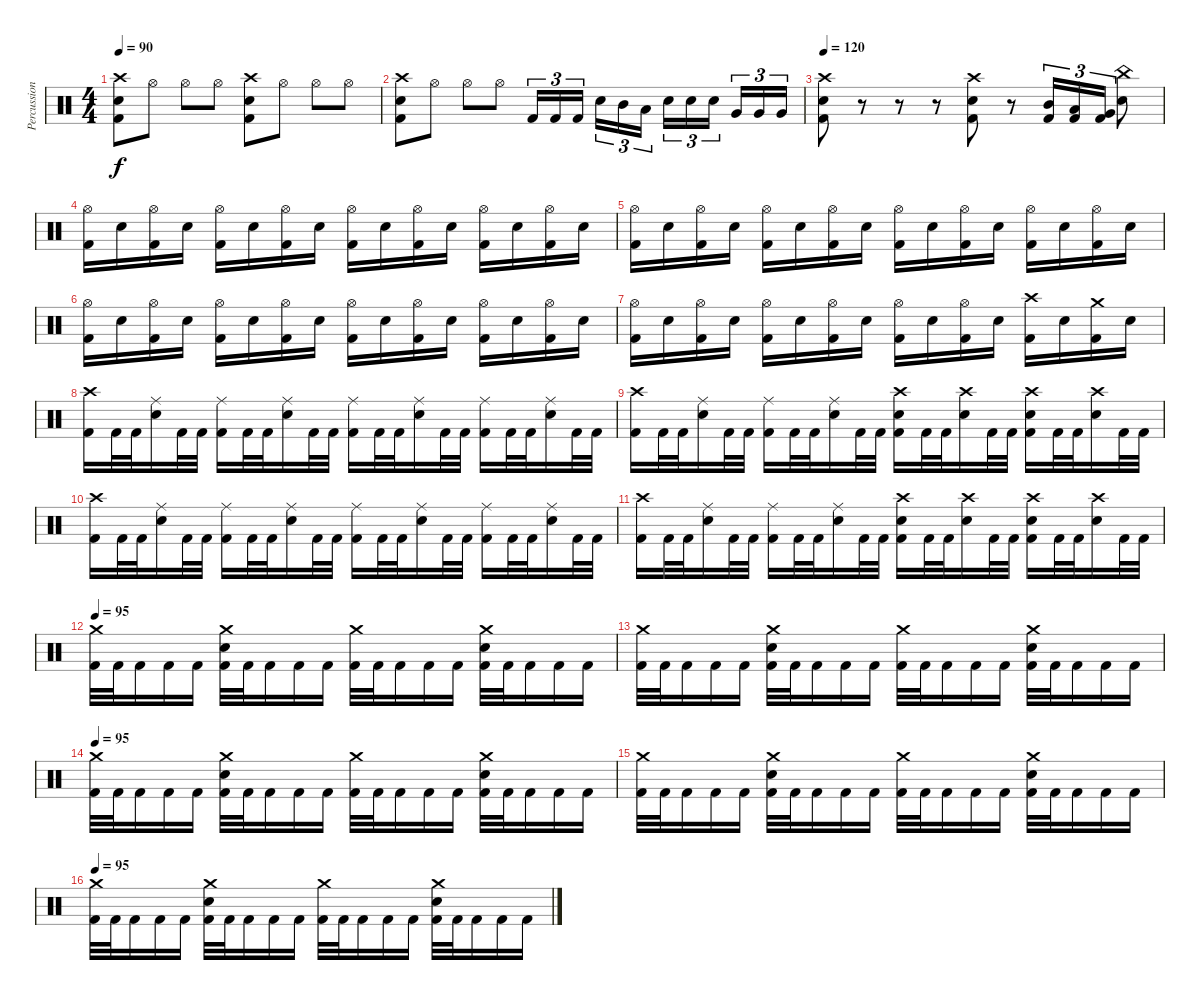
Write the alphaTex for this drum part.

\track ("Percussion" "Percussion") {instrument percussion}
\staff {score}
\articulation defaults
\ts (4 4)
\tempo 90
\clef neutral
\ks c
("Crash high (hit)" "Electric Snare (hit)" "Kick (hit) 2").8{dy f} "Hi-Hat (open)".8 "Hi-Hat (open)".8 "Hi-Hat (open)".8 ("Crash high (hit)" "Electric Snare (hit)" "Kick (hit) 2").8 "Hi-Hat (open)".8 "Hi-Hat (open)".8 "Hi-Hat (open)".8 |
("Crash high (hit)" "Electric Snare (hit)" "Kick (hit) 2").8 "Hi-Hat (open)".8 "Hi-Hat (open)".8 "Hi-Hat (open)".8 "Kick (hit) 2".16{tu (3 2)} "Kick (hit) 2".16{tu (3 2)} "Kick (hit) 2".16{tu (3 2)} "Electric Snare (hit)".16{tu (3 2)} "Mid Tom (hit)".16{tu (3 2)} "Low Tom (hit)".16{tu (3 2)} "Electric Snare (hit)".16{tu (3 2)} "Electric Snare (hit)".16{tu (3 2)} "Electric Snare (hit)".16{tu (3 2)} "Very Low Tom (hit)".16{tu (3 2)} "Very Low Tom (hit)".16{tu (3 2)} "Very Low Tom (hit)".16{tu (3 2)} |
\tempo 120
("Crash high (hit)" "Electric Snare (hit)" "Kick (hit) 2").8 r.8 r.8 r.8 ("Crash high (hit)" "Electric Snare (hit)" "Kick (hit) 2").8 r.8 ("Mid Tom (hit)" "Kick (hit) 2").16{tu (3 2)} ("Low Tom (hit)" "Kick (hit) 2").16{tu (3 2)} ("Very Low Tom (hit)" "Kick (hit) 2").16{tu (3 2)} ("China (hit)" "Electric Snare (hit)").8 |
("Hi-Hat (open)" "Kick (hit) 2").16 "Electric Snare (hit)".16 ("Hi-Hat (open)" "Kick (hit) 2").16 "Electric Snare (hit)".16 ("Hi-Hat (open)" "Kick (hit) 2").16 "Electric Snare (hit)".16 ("Hi-Hat (open)" "Kick (hit) 2").16 "Electric Snare (hit)".16 ("Hi-Hat (open)" "Kick (hit) 2").16 "Electric Snare (hit)".16 ("Hi-Hat (open)" "Kick (hit) 2").16 "Electric Snare (hit)".16 ("Hi-Hat (open)" "Kick (hit) 2").16 "Electric Snare (hit)".16 ("Hi-Hat (open)" "Kick (hit) 2").16 "Electric Snare (hit)".16 |
("Hi-Hat (open)" "Kick (hit) 2").16 "Electric Snare (hit)".16 ("Hi-Hat (open)" "Kick (hit) 2").16 "Electric Snare (hit)".16 ("Hi-Hat (open)" "Kick (hit) 2").16 "Electric Snare (hit)".16 ("Hi-Hat (open)" "Kick (hit) 2").16 "Electric Snare (hit)".16 ("Hi-Hat (open)" "Kick (hit) 2").16 "Electric Snare (hit)".16 ("Hi-Hat (open)" "Kick (hit) 2").16 "Electric Snare (hit)".16 ("Hi-Hat (open)" "Kick (hit) 2").16 "Electric Snare (hit)".16 ("Hi-Hat (open)" "Kick (hit) 2").16 "Electric Snare (hit)".16 |
("Hi-Hat (open)" "Kick (hit) 2").16 "Electric Snare (hit)".16 ("Hi-Hat (open)" "Kick (hit) 2").16 "Electric Snare (hit)".16 ("Hi-Hat (open)" "Kick (hit) 2").16 "Electric Snare (hit)".16 ("Hi-Hat (open)" "Kick (hit) 2").16 "Electric Snare (hit)".16 ("Hi-Hat (open)" "Kick (hit) 2").16 "Electric Snare (hit)".16 ("Hi-Hat (open)" "Kick (hit) 2").16 "Electric Snare (hit)".16 ("Hi-Hat (open)" "Kick (hit) 2").16 "Electric Snare (hit)".16 ("Hi-Hat (open)" "Kick (hit) 2").16 "Electric Snare (hit)".16 |
("Hi-Hat (open)" "Kick (hit) 2").16 "Electric Snare (hit)".16 ("Hi-Hat (open)" "Kick (hit) 2").16 "Electric Snare (hit)".16 ("Hi-Hat (open)" "Kick (hit) 2").16 "Electric Snare (hit)".16 ("Hi-Hat (open)" "Kick (hit) 2").16 "Electric Snare (hit)".16 ("Hi-Hat (open)" "Kick (hit) 2").16 "Electric Snare (hit)".16 ("Hi-Hat (open)" "Kick (hit) 2").16 "Electric Snare (hit)".16 ("Crash high (hit)" "Kick (hit) 2").16 "Electric Snare (hit)".16 ("Crash medium (hit)" "Kick (hit) 2").16 "Electric Snare (hit)".16 |
("Crash high (hit)" "Kick (hit) 2").16 "Kick (hit) 2".32 "Kick (hit) 2".32 ("Ride (middle)" "Electric Snare (hit)").16 "Kick (hit) 2".32 "Kick (hit) 2".32 ("Ride (middle)" "Kick (hit) 2").16 "Kick (hit) 2".32 "Kick (hit) 2".32 ("Ride (middle)" "Electric Snare (hit)").16 "Kick (hit) 2".32 "Kick (hit) 2".32 ("Ride (middle)" "Kick (hit) 2").16 "Kick (hit) 2".32 "Kick (hit) 2".32 ("Ride (middle)" "Electric Snare (hit)").16 "Kick (hit) 2".32 "Kick (hit) 2".32 ("Ride (middle)" "Kick (hit) 2").16 "Kick (hit) 2".32 "Kick (hit) 2".32 ("Ride (middle)" "Electric Snare (hit)").16 "Kick (hit) 2".32 "Kick (hit) 2".32 |
("Crash high (hit)" "Kick (hit) 2").16 "Kick (hit) 2".32 "Kick (hit) 2".32 ("Ride (middle)" "Electric Snare (hit)").16 "Kick (hit) 2".32 "Kick (hit) 2".32 ("Ride (middle)" "Kick (hit) 2").16 "Kick (hit) 2".32 "Kick (hit) 2".32 ("Ride (middle)" "Electric Snare (hit)").16 "Kick (hit) 2".32 "Kick (hit) 2".32 ("Crash high (hit)" "Electric Snare (hit)" "Kick (hit) 2").16 "Kick (hit) 2".32 "Kick (hit) 2".32 ("Crash high (hit)" "Electric Snare (hit)").16 "Kick (hit) 2".32 "Kick (hit) 2".32 ("Crash high (hit)" "Electric Snare (hit)" "Kick (hit) 2").16 "Kick (hit) 2".32 "Kick (hit) 2".32 ("Crash high (hit)" "Electric Snare (hit)").16 "Kick (hit) 2".32 "Kick (hit) 2".32 |
("Crash high (hit)" "Kick (hit) 2").16 "Kick (hit) 2".32 "Kick (hit) 2".32 ("Ride (middle)" "Electric Snare (hit)").16 "Kick (hit) 2".32 "Kick (hit) 2".32 ("Ride (middle)" "Kick (hit) 2").16 "Kick (hit) 2".32 "Kick (hit) 2".32 ("Ride (middle)" "Electric Snare (hit)").16 "Kick (hit) 2".32 "Kick (hit) 2".32 ("Ride (middle)" "Kick (hit) 2").16 "Kick (hit) 2".32 "Kick (hit) 2".32 ("Ride (middle)" "Electric Snare (hit)").16 "Kick (hit) 2".32 "Kick (hit) 2".32 ("Ride (middle)" "Kick (hit) 2").16 "Kick (hit) 2".32 "Kick (hit) 2".32 ("Ride (middle)" "Electric Snare (hit)").16 "Kick (hit) 2".32 "Kick (hit) 2".32 |
("Crash high (hit)" "Kick (hit) 2").16 "Kick (hit) 2".32 "Kick (hit) 2".32 ("Ride (middle)" "Electric Snare (hit)").16 "Kick (hit) 2".32 "Kick (hit) 2".32 ("Ride (middle)" "Kick (hit) 2").16 "Kick (hit) 2".32 "Kick (hit) 2".32 ("Ride (middle)" "Electric Snare (hit)").16 "Kick (hit) 2".32 "Kick (hit) 2".32 ("Crash high (hit)" "Electric Snare (hit)" "Kick (hit) 2").16 "Kick (hit) 2".32 "Kick (hit) 2".32 ("Crash high (hit)" "Electric Snare (hit)").16 "Kick (hit) 2".32 "Kick (hit) 2".32 ("Crash high (hit)" "Electric Snare (hit)" "Kick (hit) 2").16 "Kick (hit) 2".32 "Kick (hit) 2".32 ("Crash high (hit)" "Electric Snare (hit)").16 "Kick (hit) 2".32 "Kick (hit) 2".32 |
\tempo 95
("Crash medium (hit)" "Kick (hit) 2").32 "Kick (hit) 2".32 "Kick (hit) 2".16 "Kick (hit) 2".16 "Kick (hit) 2".16 ("Crash medium (hit)" "Electric Snare (hit)" "Kick (hit) 2").32 "Kick (hit) 2".32 "Kick (hit) 2".16 "Kick (hit) 2".16 "Kick (hit) 2".16 ("Crash medium (hit)" "Kick (hit) 2").32 "Kick (hit) 2".32 "Kick (hit) 2".16 "Kick (hit) 2".16 "Kick (hit) 2".16 ("Crash medium (hit)" "Electric Snare (hit)" "Kick (hit) 2").32 "Kick (hit) 2".32 "Kick (hit) 2".16 "Kick (hit) 2".16 "Kick (hit) 2".16 |
("Crash medium (hit)" "Kick (hit) 2").32 "Kick (hit) 2".32 "Kick (hit) 2".16 "Kick (hit) 2".16 "Kick (hit) 2".16 ("Crash medium (hit)" "Electric Snare (hit)" "Kick (hit) 2").32 "Kick (hit) 2".32 "Kick (hit) 2".16 "Kick (hit) 2".16 "Kick (hit) 2".16 ("Crash medium (hit)" "Kick (hit) 2").32 "Kick (hit) 2".32 "Kick (hit) 2".16 "Kick (hit) 2".16 "Kick (hit) 2".16 ("Crash medium (hit)" "Electric Snare (hit)" "Kick (hit) 2").32 "Kick (hit) 2".32 "Kick (hit) 2".16 "Kick (hit) 2".16 "Kick (hit) 2".16 |
\tempo 95
("Crash medium (hit)" "Kick (hit) 2").32 "Kick (hit) 2".32 "Kick (hit) 2".16 "Kick (hit) 2".16 "Kick (hit) 2".16 ("Crash medium (hit)" "Electric Snare (hit)" "Kick (hit) 2").32 "Kick (hit) 2".32 "Kick (hit) 2".16 "Kick (hit) 2".16 "Kick (hit) 2".16 ("Crash medium (hit)" "Kick (hit) 2").32 "Kick (hit) 2".32 "Kick (hit) 2".16 "Kick (hit) 2".16 "Kick (hit) 2".16 ("Crash medium (hit)" "Electric Snare (hit)" "Kick (hit) 2").32 "Kick (hit) 2".32 "Kick (hit) 2".16 "Kick (hit) 2".16 "Kick (hit) 2".16 |
("Crash medium (hit)" "Kick (hit) 2").32 "Kick (hit) 2".32 "Kick (hit) 2".16 "Kick (hit) 2".16 "Kick (hit) 2".16 ("Crash medium (hit)" "Electric Snare (hit)" "Kick (hit) 2").32 "Kick (hit) 2".32 "Kick (hit) 2".16 "Kick (hit) 2".16 "Kick (hit) 2".16 ("Crash medium (hit)" "Kick (hit) 2").32 "Kick (hit) 2".32 "Kick (hit) 2".16 "Kick (hit) 2".16 "Kick (hit) 2".16 ("Crash medium (hit)" "Electric Snare (hit)" "Kick (hit) 2").32 "Kick (hit) 2".32 "Kick (hit) 2".16 "Kick (hit) 2".16 "Kick (hit) 2".16 |
\tempo 95
("Crash medium (hit)" "Kick (hit) 2").32 "Kick (hit) 2".32 "Kick (hit) 2".16 "Kick (hit) 2".16 "Kick (hit) 2".16 ("Crash medium (hit)" "Electric Snare (hit)" "Kick (hit) 2").32 "Kick (hit) 2".32 "Kick (hit) 2".16 "Kick (hit) 2".16 "Kick (hit) 2".16 ("Crash medium (hit)" "Kick (hit) 2").32 "Kick (hit) 2".32 "Kick (hit) 2".16 "Kick (hit) 2".16 "Kick (hit) 2".16 ("Crash medium (hit)" "Electric Snare (hit)" "Kick (hit) 2").32 "Kick (hit) 2".32 "Kick (hit) 2".16 "Kick (hit) 2".16 "Kick (hit) 2".16
